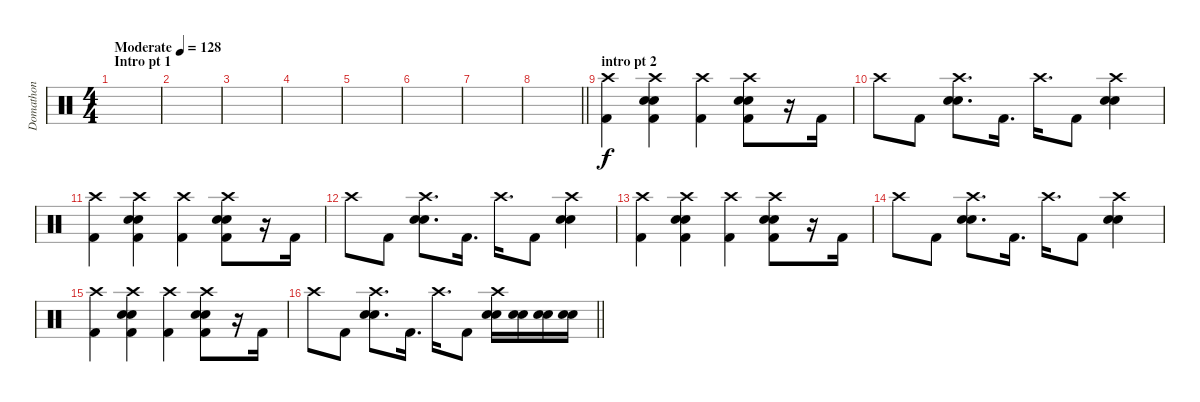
\track ("Domathon" "Domathon") {instrument percussion}
\staff {score}
\articulation defaults
\ts (4 4)
\section ("" "Intro pt 1")
\tempo (128 "Moderate")
\clef neutral
\ks c
|
|
|
|
|
|
|
\barLineRight lightlight
|
\section ("" "intro pt 2")
("Crash high (hit)" "Kick (hit) 2").4 ("Crash high (hit)" "Snare (hit) 2" "Electric Snare (hit)" "Kick (hit) 2").4 ("Crash high (hit)" "Kick (hit) 2").4 ("Crash high (hit)" "Snare (hit) 2" "Electric Snare (hit)" "Kick (hit) 2").8 r.16 "Kick (hit) 2".16 |
"Crash high (hit)".8 "Kick (hit) 2".8 ("Crash high (hit)" "Snare (hit) 2" "Electric Snare (hit)").8{d} "Kick (hit) 2".16{d} "Crash high (hit)".16{d} "Kick (hit) 2".8 ("Crash high (hit)" "Snare (hit) 2" "Electric Snare (hit)").4 |
("Crash high (hit)" "Kick (hit) 2").4 ("Crash high (hit)" "Snare (hit) 2" "Electric Snare (hit)" "Kick (hit) 2").4 ("Crash high (hit)" "Kick (hit) 2").4 ("Crash high (hit)" "Snare (hit) 2" "Electric Snare (hit)" "Kick (hit) 2").8 r.16 "Kick (hit) 2".16 |
"Crash high (hit)".8 "Kick (hit) 2".8 ("Crash high (hit)" "Snare (hit) 2" "Electric Snare (hit)").8{d} "Kick (hit) 2".16{d} "Crash high (hit)".16{d} "Kick (hit) 2".8 ("Crash high (hit)" "Snare (hit) 2" "Electric Snare (hit)").4 |
("Crash high (hit)" "Kick (hit) 2").4 ("Crash high (hit)" "Snare (hit) 2" "Electric Snare (hit)" "Kick (hit) 2").4 ("Crash high (hit)" "Kick (hit) 2").4 ("Crash high (hit)" "Snare (hit) 2" "Electric Snare (hit)" "Kick (hit) 2").8 r.16 "Kick (hit) 2".16 |
"Crash high (hit)".8 "Kick (hit) 2".8 ("Crash high (hit)" "Snare (hit) 2" "Electric Snare (hit)").8{d} "Kick (hit) 2".16{d} "Crash high (hit)".16{d} "Kick (hit) 2".8 ("Crash high (hit)" "Snare (hit) 2" "Electric Snare (hit)").4 |
("Crash high (hit)" "Kick (hit) 2").4 ("Crash high (hit)" "Snare (hit) 2" "Electric Snare (hit)" "Kick (hit) 2").4 ("Crash high (hit)" "Kick (hit) 2").4 ("Crash high (hit)" "Snare (hit) 2" "Electric Snare (hit)" "Kick (hit) 2").8 r.16 "Kick (hit) 2".16 |
\barLineRight lightlight "Crash high (hit)".8 "Kick (hit) 2".8
("Crash high (hit)" "Snare (hit) 2" "Electric Snare (hit)").8{d} "Kick (hit) 2".16{d} "Crash high (hit)".16{d} "Kick (hit) 2".8 ("Crash high (hit)" "Snare (hit) 2" "Electric Snare (hit)").16 ("Snare (hit) 2" "Electric Snare (hit)").16 ("Snare (hit) 2" "Electric Snare (hit)").16 ("Snare (hit) 2" "Electric Snare (hit)").16
